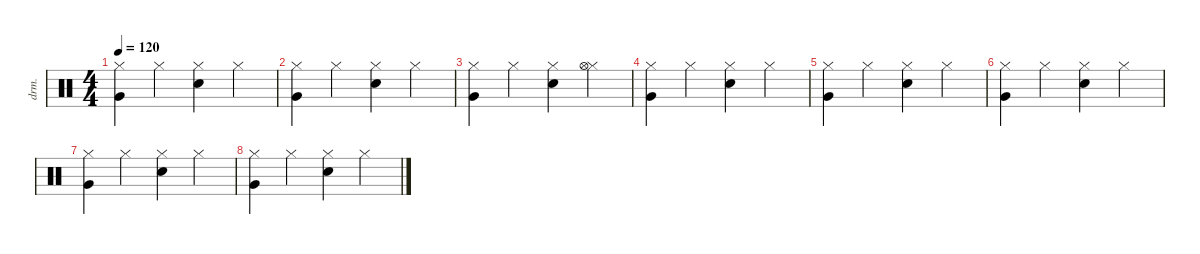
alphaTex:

\defaultSystemsLayout 4
\hideDynamics
\bracketExtendMode nobrackets
\otherSystemsTrackNameOrientation horizontal
\track ("Track 2" "drm.") {defaultSystemsLayout 4 instrument percussion}
\staff {score}
\articulation defaults
\ts (4 4)
\tempo 120
\clef neutral
\ks c
("Hi-Hat (closed)" "Very Low Tom (hit)").4{dy f beam Down} "Hi-Hat (closed)".4{beam Down} ("Hi-Hat (closed)" "Snare (hit) 2").4{beam Down} "Hi-Hat (closed)".4{beam Down} |
("Hi-Hat (closed)" "Very Low Tom (hit)").4{beam Down} "Hi-Hat (closed)".4{beam Down} ("Hi-Hat (closed)" "Snare (hit) 2").4{beam Down} "Hi-Hat (closed)".4{beam Down} |
("Hi-Hat (closed)" "Very Low Tom (hit)").4{beam Down} "Hi-Hat (closed)".4{beam Down} ("Hi-Hat (closed)" "Snare (hit) 2").4{beam Down} ("Hi-Hat (closed)" "Hi-Hat (open)").4{beam Down} |
("Hi-Hat (closed)" "Very Low Tom (hit)").4{beam Down} "Hi-Hat (closed)".4{beam Down} ("Hi-Hat (closed)" "Snare (hit) 2").4{beam Down} "Hi-Hat (closed)".4{beam Down} |
("Hi-Hat (closed)" "Very Low Tom (hit)").4{beam Down} "Hi-Hat (closed)".4{beam Down} ("Hi-Hat (closed)" "Snare (hit) 2").4{beam Down} "Hi-Hat (closed)".4{beam Down} |
("Hi-Hat (closed)" "Very Low Tom (hit)").4{beam Down} "Hi-Hat (closed)".4{beam Down} ("Hi-Hat (closed)" "Snare (hit) 2").4{beam Down} "Hi-Hat (closed)".4{beam Down} |
("Hi-Hat (closed)" "Very Low Tom (hit)").4{beam Down} "Hi-Hat (closed)".4{beam Down} ("Hi-Hat (closed)" "Snare (hit) 2").4{beam Down} "Hi-Hat (closed)".4{beam Down} |
("Hi-Hat (closed)" "Very Low Tom (hit)").4{beam Down} "Hi-Hat (closed)".4{beam Down} ("Hi-Hat (closed)" "Snare (hit) 2").4{beam Down} "Hi-Hat (closed)".4{beam Down}
